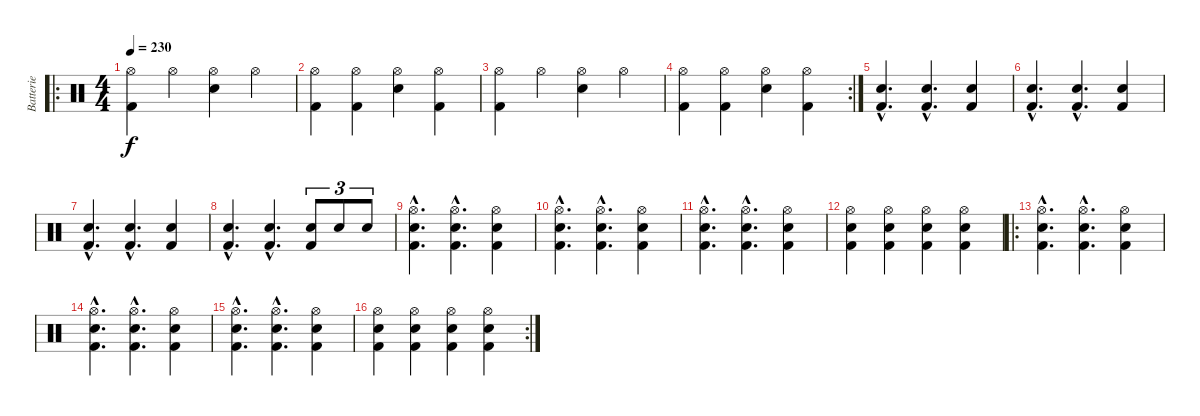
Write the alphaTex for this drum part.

\track ("Batterie" "Batterie") {instrument percussion}
\staff {score}
\articulation defaults
\ro
\ts (4 4)
\tempo 230
\clef neutral
\ks c
("Hi-Hat (open)" "Kick (hit) 2").4{dy f} "Hi-Hat (open)".4 ("Hi-Hat (open)" "Snare (hit) 2").4 "Hi-Hat (open)".4 |
("Hi-Hat (open)" "Kick (hit) 2").4 ("Hi-Hat (open)" "Kick (hit) 2").4 ("Hi-Hat (open)" "Snare (hit) 2").4 ("Hi-Hat (open)" "Kick (hit) 2").4 |
("Hi-Hat (open)" "Kick (hit) 2").4 "Hi-Hat (open)".4 ("Hi-Hat (open)" "Snare (hit) 2").4 "Hi-Hat (open)".4 |
\rc 2
("Hi-Hat (open)" "Kick (hit) 2").4 ("Hi-Hat (open)" "Kick (hit) 2").4 ("Hi-Hat (open)" "Snare (hit) 2").4 ("Hi-Hat (open)" "Kick (hit) 2").4 |
\section ("" "")
("Snare (hit) 2"{hac} "Kick (hit) 2"{hac}).4{d} ("Snare (hit) 2"{hac} "Kick (hit) 2"{hac}).4{d} ("Snare (hit) 2" "Kick (hit) 2").4 |
("Snare (hit) 2"{hac} "Kick (hit) 2"{hac}).4{d} ("Snare (hit) 2"{hac} "Kick (hit) 2"{hac}).4{d} ("Snare (hit) 2" "Kick (hit) 2").4 |
("Snare (hit) 2"{hac} "Kick (hit) 2"{hac}).4{d} ("Snare (hit) 2"{hac} "Kick (hit) 2"{hac}).4{d} ("Snare (hit) 2" "Kick (hit) 2").4 |
("Snare (hit) 2"{hac} "Kick (hit) 2"{hac}).4{d} ("Snare (hit) 2"{hac} "Kick (hit) 2"{hac}).4{d} ("Snare (hit) 2" "Kick (hit) 2").8{tu (3 2)} "Snare (hit) 2".8{tu (3 2)} "Snare (hit) 2".8{tu (3 2)} |
("Hi-Hat (open)"{hac} "Snare (hit) 2"{hac} "Kick (hit) 2"{hac}).4{d} ("Hi-Hat (open)"{hac} "Snare (hit) 2"{hac} "Kick (hit) 2"{hac}).4{d} ("Hi-Hat (open)" "Snare (hit) 2" "Kick (hit) 2").4 |
("Hi-Hat (open)"{hac} "Snare (hit) 2"{hac} "Kick (hit) 2"{hac}).4{d} ("Hi-Hat (open)"{hac} "Snare (hit) 2"{hac} "Kick (hit) 2"{hac}).4{d} ("Hi-Hat (open)" "Snare (hit) 2" "Kick (hit) 2").4 |
("Hi-Hat (open)"{hac} "Snare (hit) 2"{hac} "Kick (hit) 2"{hac}).4{d} ("Hi-Hat (open)"{hac} "Snare (hit) 2"{hac} "Kick (hit) 2"{hac}).4{d} ("Hi-Hat (open)" "Snare (hit) 2" "Kick (hit) 2").4 |
("Hi-Hat (open)" "Snare (hit) 2" "Kick (hit) 2").4 ("Hi-Hat (open)" "Snare (hit) 2" "Kick (hit) 2").4 ("Hi-Hat (open)" "Snare (hit) 2" "Kick (hit) 2").4 ("Hi-Hat (open)" "Snare (hit) 2" "Kick (hit) 2").4 |
\ro
("Hi-Hat (open)"{hac} "Snare (hit) 2"{hac} "Kick (hit) 2"{hac}).4{d} ("Hi-Hat (open)"{hac} "Snare (hit) 2"{hac} "Kick (hit) 2"{hac}).4{d} ("Hi-Hat (open)" "Snare (hit) 2" "Kick (hit) 2").4 |
("Hi-Hat (open)"{hac} "Snare (hit) 2"{hac} "Kick (hit) 2"{hac}).4{d} ("Hi-Hat (open)"{hac} "Snare (hit) 2"{hac} "Kick (hit) 2"{hac}).4{d} ("Hi-Hat (open)" "Snare (hit) 2" "Kick (hit) 2").4 |
("Hi-Hat (open)"{hac} "Snare (hit) 2"{hac} "Kick (hit) 2"{hac}).4{d} ("Hi-Hat (open)"{hac} "Snare (hit) 2"{hac} "Kick (hit) 2"{hac}).4{d} ("Hi-Hat (open)" "Snare (hit) 2" "Kick (hit) 2").4 |
\rc 2
("Hi-Hat (open)" "Snare (hit) 2" "Kick (hit) 2").4 ("Hi-Hat (open)" "Snare (hit) 2" "Kick (hit) 2").4 ("Hi-Hat (open)" "Snare (hit) 2" "Kick (hit) 2").4 ("Hi-Hat (open)" "Snare (hit) 2" "Kick (hit) 2").4
